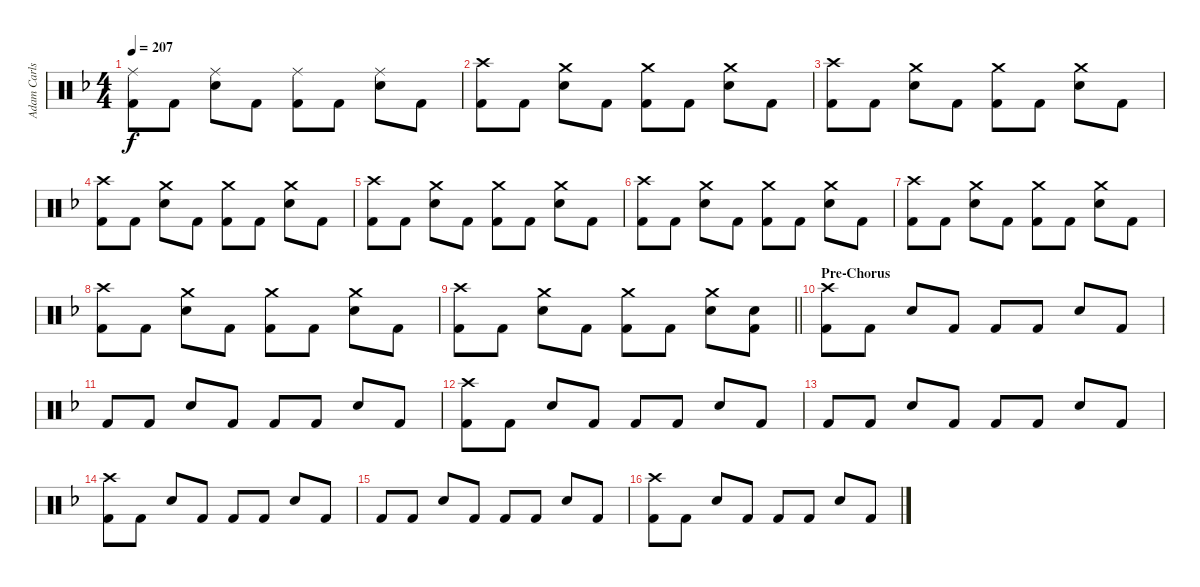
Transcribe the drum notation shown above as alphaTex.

\track ("Adam Carlson" "Adam Carls") {instrument percussion}
\staff {score}
\articulation defaults
\ts (4 4)
\tempo 207
\clef neutral
\ks f
("Ride (middle)" "Kick (hit) 2").8{dy f} "Kick (hit) 2".8 ("Ride (middle)" "Electric Snare (hit)").8 "Kick (hit) 2".8 ("Ride (middle)" "Kick (hit) 2").8 "Kick (hit) 2".8 ("Ride (middle)" "Electric Snare (hit)").8 "Kick (hit) 2".8 |
("Crash high (hit)" "Kick (hit) 2").8 "Kick (hit) 2".8 ("Crash medium (hit)" "Electric Snare (hit)").8 "Kick (hit) 2".8 ("Crash medium (hit)" "Kick (hit) 2").8 "Kick (hit) 2".8 ("Crash medium (hit)" "Electric Snare (hit)").8 "Kick (hit) 2".8 |
("Crash high (hit)" "Kick (hit) 2").8 "Kick (hit) 2".8 ("Crash medium (hit)" "Electric Snare (hit)").8 "Kick (hit) 2".8 ("Crash medium (hit)" "Kick (hit) 2").8 "Kick (hit) 2".8 ("Crash medium (hit)" "Electric Snare (hit)").8 "Kick (hit) 2".8 |
("Crash high (hit)" "Kick (hit) 2").8 "Kick (hit) 2".8 ("Crash medium (hit)" "Electric Snare (hit)").8 "Kick (hit) 2".8 ("Crash medium (hit)" "Kick (hit) 2").8 "Kick (hit) 2".8 ("Crash medium (hit)" "Electric Snare (hit)").8 "Kick (hit) 2".8 |
("Crash high (hit)" "Kick (hit) 2").8 "Kick (hit) 2".8 ("Crash medium (hit)" "Electric Snare (hit)").8 "Kick (hit) 2".8 ("Crash medium (hit)" "Kick (hit) 2").8 "Kick (hit) 2".8 ("Crash medium (hit)" "Electric Snare (hit)").8 "Kick (hit) 2".8 |
("Crash high (hit)" "Kick (hit) 2").8 "Kick (hit) 2".8 ("Crash medium (hit)" "Electric Snare (hit)").8 "Kick (hit) 2".8 ("Crash medium (hit)" "Kick (hit) 2").8 "Kick (hit) 2".8 ("Crash medium (hit)" "Electric Snare (hit)").8 "Kick (hit) 2".8 |
("Crash high (hit)" "Kick (hit) 2").8 "Kick (hit) 2".8 ("Crash medium (hit)" "Electric Snare (hit)").8 "Kick (hit) 2".8 ("Crash medium (hit)" "Kick (hit) 2").8 "Kick (hit) 2".8 ("Crash medium (hit)" "Electric Snare (hit)").8 "Kick (hit) 2".8 |
("Crash high (hit)" "Kick (hit) 2").8 "Kick (hit) 2".8 ("Crash medium (hit)" "Electric Snare (hit)").8 "Kick (hit) 2".8 ("Crash medium (hit)" "Kick (hit) 2").8 "Kick (hit) 2".8 ("Crash medium (hit)" "Electric Snare (hit)").8 "Kick (hit) 2".8 |
\barLineRight lightlight
("Crash high (hit)" "Kick (hit) 2").8 "Kick (hit) 2".8 ("Crash medium (hit)" "Electric Snare (hit)").8 "Kick (hit) 2".8 ("Crash medium (hit)" "Kick (hit) 2").8 "Kick (hit) 2".8 ("Crash medium (hit)" "Electric Snare (hit)").8 ("Electric Snare (hit)" "Kick (hit) 2").8 |
\section ("" "Pre-Chorus")
("Crash high (hit)" "Kick (hit) 2").8 "Kick (hit) 2".8 "Electric Snare (hit)".8 "Kick (hit) 2".8 "Kick (hit) 2".8 "Kick (hit) 2".8 "Electric Snare (hit)".8 "Kick (hit) 2".8 |
"Kick (hit) 2".8 "Kick (hit) 2".8 "Electric Snare (hit)".8 "Kick (hit) 2".8 "Kick (hit) 2".8 "Kick (hit) 2".8 "Electric Snare (hit)".8 "Kick (hit) 2".8 |
("Crash high (hit)" "Kick (hit) 2").8 "Kick (hit) 2".8 "Electric Snare (hit)".8 "Kick (hit) 2".8 "Kick (hit) 2".8 "Kick (hit) 2".8 "Electric Snare (hit)".8 "Kick (hit) 2".8 |
"Kick (hit) 2".8 "Kick (hit) 2".8 "Electric Snare (hit)".8 "Kick (hit) 2".8 "Kick (hit) 2".8 "Kick (hit) 2".8 "Electric Snare (hit)".8 "Kick (hit) 2".8 |
("Crash high (hit)" "Kick (hit) 2").8 "Kick (hit) 2".8 "Electric Snare (hit)".8 "Kick (hit) 2".8 "Kick (hit) 2".8 "Kick (hit) 2".8 "Electric Snare (hit)".8 "Kick (hit) 2".8 |
"Kick (hit) 2".8 "Kick (hit) 2".8 "Electric Snare (hit)".8 "Kick (hit) 2".8 "Kick (hit) 2".8 "Kick (hit) 2".8 "Electric Snare (hit)".8 "Kick (hit) 2".8 |
("Crash high (hit)" "Kick (hit) 2").8 "Kick (hit) 2".8 "Electric Snare (hit)".8 "Kick (hit) 2".8 "Kick (hit) 2".8 "Kick (hit) 2".8 "Electric Snare (hit)".8 "Kick (hit) 2".8
